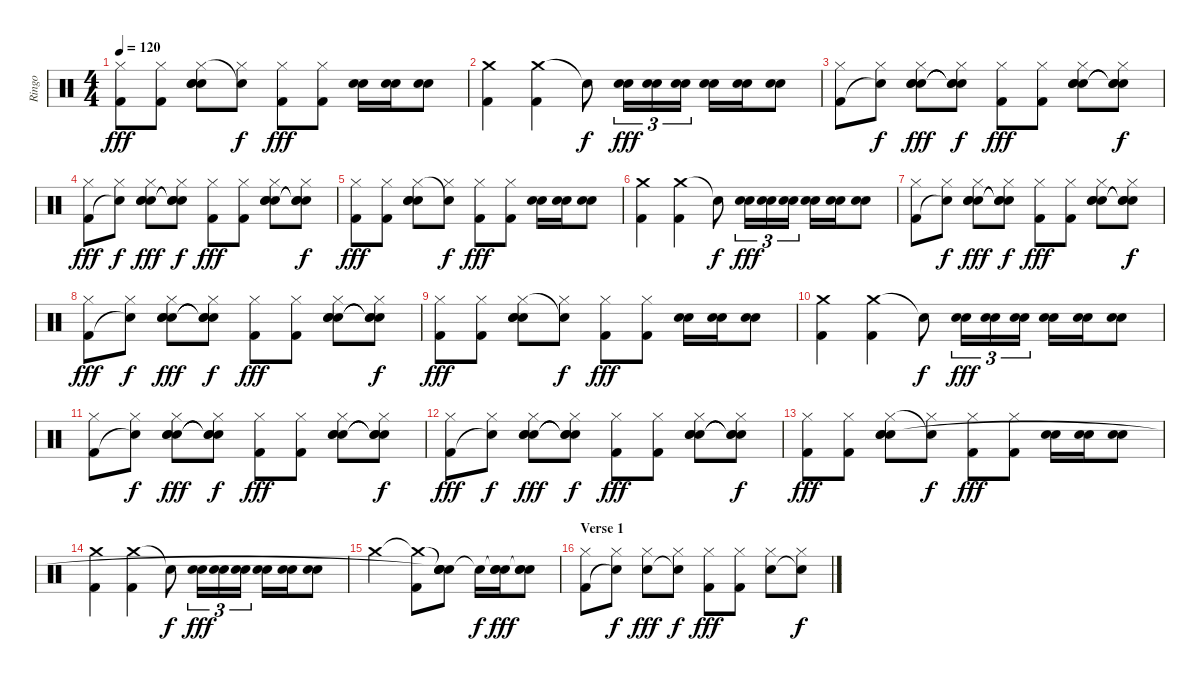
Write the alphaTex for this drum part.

\track ("Ringo" "Ringo") {instrument percussion}
\staff {score}
\articulation defaults
\ts (4 4)
\tempo 120
\clef neutral
\ks c
("Hi-Hat (closed)" "Kick (hit) 2").8{dy fff} ("Hi-Hat (closed)" "Kick (hit) 2").8 ("Hand Clap (hit)" "Hi-Hat (closed)" "Electric Snare (hit)" "Hand Clap (hit)").8 ("Hi-Hat (closed)" "Snare (hit)"{t}).8{dy f} ("Hi-Hat (closed)" "Kick (hit) 2").8{dy fff} ("Hi-Hat (closed)" "Kick (hit) 2").8 ("Electric Snare (hit)" "Electric Snare (hit)").16 ("Electric Snare (hit)" "Electric Snare (hit)").16 ("Electric Snare (hit)" "Electric Snare (hit)").8 |
("Crash medium (hit)" "Kick (hit) 2").4 ("Crash medium (hit)" "Kick (hit) 2").4 "Snare (hit)"{t}.8{dy f} ("Electric Snare (hit)" "Electric Snare (hit)").16{tu (3 2) dy fff} ("Electric Snare (hit)" "Electric Snare (hit)").16{tu (3 2)} ("Electric Snare (hit)" "Electric Snare (hit)").16{tu (3 2)} ("Electric Snare (hit)" "Electric Snare (hit)").16 ("Electric Snare (hit)" "Electric Snare (hit)").16 ("Electric Snare (hit)" "Electric Snare (hit)").8 |
("Hi-Hat (closed)" "Kick (hit) 2").8 ("Hi-Hat (closed)" "Snare (hit)"{t}).8{dy f} ("Hand Clap (hit)" "Hi-Hat (closed)" "Electric Snare (hit)" "Hand Clap (hit)").8{dy fff} ("Snare (hit)"{t} "Hi-Hat (closed)" "Snare (hit)"{t} "Snare (hit)"{t}).8{dy f} ("Hi-Hat (closed)" "Kick (hit) 2").8{dy fff} ("Hi-Hat (closed)" "Kick (hit) 2").8 ("Hand Clap (hit)" "Hi-Hat (closed)" "Electric Snare (hit)" "Hand Clap (hit)").8 ("Snare (hit)"{t} "Hi-Hat (closed)" "Snare (hit)"{t} "Snare (hit)"{t}).8{dy f} |
("Hi-Hat (closed)" "Kick (hit) 2").8{dy fff} ("Hi-Hat (closed)" "Snare (hit)"{t}).8{dy f} ("Hand Clap (hit)" "Hi-Hat (closed)" "Electric Snare (hit)" "Hand Clap (hit)").8{dy fff} ("Snare (hit)"{t} "Hi-Hat (closed)" "Snare (hit)"{t} "Snare (hit)"{t}).8{dy f} ("Hi-Hat (closed)" "Kick (hit) 2").8{dy fff} ("Hi-Hat (closed)" "Kick (hit) 2").8 ("Hand Clap (hit)" "Hi-Hat (closed)" "Electric Snare (hit)" "Hand Clap (hit)").8 ("Snare (hit)"{t} "Hi-Hat (closed)" "Snare (hit)"{t} "Snare (hit)"{t}).8{dy f} |
("Hi-Hat (closed)" "Kick (hit) 2").8{dy fff} ("Hi-Hat (closed)" "Kick (hit) 2").8 ("Hand Clap (hit)" "Hi-Hat (closed)" "Electric Snare (hit)" "Hand Clap (hit)").8 ("Hi-Hat (closed)" "Snare (hit)"{t}).8{dy f} ("Hi-Hat (closed)" "Kick (hit) 2").8{dy fff} ("Hi-Hat (closed)" "Kick (hit) 2").8 ("Electric Snare (hit)" "Electric Snare (hit)").16 ("Electric Snare (hit)" "Electric Snare (hit)").16 ("Electric Snare (hit)" "Electric Snare (hit)").8 |
("Crash medium (hit)" "Kick (hit) 2").4 ("Crash medium (hit)" "Kick (hit) 2").4 "Snare (hit)"{t}.8{dy f} ("Electric Snare (hit)" "Electric Snare (hit)").16{tu (3 2) dy fff} ("Electric Snare (hit)" "Electric Snare (hit)").16{tu (3 2)} ("Electric Snare (hit)" "Electric Snare (hit)").16{tu (3 2)} ("Electric Snare (hit)" "Electric Snare (hit)").16 ("Electric Snare (hit)" "Electric Snare (hit)").16 ("Electric Snare (hit)" "Electric Snare (hit)").8 |
("Hi-Hat (closed)" "Kick (hit) 2").8 ("Hi-Hat (closed)" "Snare (hit)"{t}).8{dy f} ("Hand Clap (hit)" "Hi-Hat (closed)" "Electric Snare (hit)" "Hand Clap (hit)").8{dy fff} ("Snare (hit)"{t} "Hi-Hat (closed)" "Snare (hit)"{t} "Snare (hit)"{t}).8{dy f} ("Hi-Hat (closed)" "Kick (hit) 2").8{dy fff} ("Hi-Hat (closed)" "Kick (hit) 2").8 ("Hand Clap (hit)" "Hi-Hat (closed)" "Electric Snare (hit)" "Hand Clap (hit)").8 ("Snare (hit)"{t} "Hi-Hat (closed)" "Snare (hit)"{t} "Snare (hit)"{t}).8{dy f} |
("Hi-Hat (closed)" "Kick (hit) 2").8{dy fff} ("Hi-Hat (closed)" "Snare (hit)"{t}).8{dy f} ("Hand Clap (hit)" "Hi-Hat (closed)" "Electric Snare (hit)" "Hand Clap (hit)").8{dy fff} ("Snare (hit)"{t} "Hi-Hat (closed)" "Snare (hit)"{t} "Snare (hit)"{t}).8{dy f} ("Hi-Hat (closed)" "Kick (hit) 2").8{dy fff} ("Hi-Hat (closed)" "Kick (hit) 2").8 ("Hand Clap (hit)" "Hi-Hat (closed)" "Electric Snare (hit)" "Hand Clap (hit)").8 ("Snare (hit)"{t} "Hi-Hat (closed)" "Snare (hit)"{t} "Snare (hit)"{t}).8{dy f} |
("Hi-Hat (closed)" "Kick (hit) 2").8{dy fff} ("Hi-Hat (closed)" "Kick (hit) 2").8 ("Hand Clap (hit)" "Hi-Hat (closed)" "Electric Snare (hit)" "Hand Clap (hit)").8 ("Hi-Hat (closed)" "Snare (hit)"{t}).8{dy f} ("Hi-Hat (closed)" "Kick (hit) 2").8{dy fff} ("Hi-Hat (closed)" "Kick (hit) 2").8 ("Electric Snare (hit)" "Electric Snare (hit)").16 ("Electric Snare (hit)" "Electric Snare (hit)").16 ("Electric Snare (hit)" "Electric Snare (hit)").8 |
("Crash medium (hit)" "Kick (hit) 2").4 ("Crash medium (hit)" "Kick (hit) 2").4 "Snare (hit)"{t}.8{dy f} ("Electric Snare (hit)" "Electric Snare (hit)").16{tu (3 2) dy fff} ("Electric Snare (hit)" "Electric Snare (hit)").16{tu (3 2)} ("Electric Snare (hit)" "Electric Snare (hit)").16{tu (3 2)} ("Electric Snare (hit)" "Electric Snare (hit)").16 ("Electric Snare (hit)" "Electric Snare (hit)").16 ("Electric Snare (hit)" "Electric Snare (hit)").8 |
("Hi-Hat (closed)" "Kick (hit) 2").8 ("Hi-Hat (closed)" "Snare (hit)"{t}).8{dy f} ("Hand Clap (hit)" "Hi-Hat (closed)" "Electric Snare (hit)" "Hand Clap (hit)").8{dy fff} ("Snare (hit)"{t} "Hi-Hat (closed)" "Snare (hit)"{t} "Snare (hit)"{t}).8{dy f} ("Hi-Hat (closed)" "Kick (hit) 2").8{dy fff} ("Hi-Hat (closed)" "Kick (hit) 2").8 ("Hand Clap (hit)" "Hi-Hat (closed)" "Electric Snare (hit)" "Hand Clap (hit)").8 ("Snare (hit)"{t} "Hi-Hat (closed)" "Snare (hit)"{t} "Snare (hit)"{t}).8{dy f} |
("Hi-Hat (closed)" "Kick (hit) 2").8{dy fff} ("Hi-Hat (closed)" "Snare (hit)"{t}).8{dy f} ("Hand Clap (hit)" "Hi-Hat (closed)" "Electric Snare (hit)" "Hand Clap (hit)").8{dy fff} ("Snare (hit)"{t} "Hi-Hat (closed)" "Snare (hit)"{t} "Snare (hit)"{t}).8{dy f} ("Hi-Hat (closed)" "Kick (hit) 2").8{dy fff} ("Hi-Hat (closed)" "Kick (hit) 2").8 ("Hand Clap (hit)" "Hi-Hat (closed)" "Electric Snare (hit)" "Hand Clap (hit)").8 ("Snare (hit)"{t} "Hi-Hat (closed)" "Snare (hit)"{t} "Snare (hit)"{t}).8{dy f} |
("Hi-Hat (closed)" "Kick (hit) 2").8{dy fff} ("Hi-Hat (closed)" "Kick (hit) 2").8 ("Hand Clap (hit)" "Hi-Hat (closed)" "Electric Snare (hit)" "Hand Clap (hit)").8 ("Hi-Hat (closed)" "Snare (hit)"{t}).8{dy f} ("Hi-Hat (closed)" "Kick (hit) 2").8{dy fff} ("Hi-Hat (closed)" "Kick (hit) 2").8 ("Electric Snare (hit)" "Electric Snare (hit)").16 ("Electric Snare (hit)" "Electric Snare (hit)").16 ("Electric Snare (hit)" "Electric Snare (hit)").8 |
("Crash medium (hit)" "Kick (hit) 2").4 ("Crash medium (hit)" "Kick (hit) 2").4 "Snare (hit)"{t}.8{dy f} ("Electric Snare (hit)" "Electric Snare (hit)").16{tu (3 2) dy fff} ("Electric Snare (hit)" "Electric Snare (hit)").16{tu (3 2)} ("Electric Snare (hit)" "Electric Snare (hit)").16{tu (3 2)} ("Electric Snare (hit)" "Electric Snare (hit)").16 ("Electric Snare (hit)" "Electric Snare (hit)").16 ("Electric Snare (hit)" "Electric Snare (hit)").8 |
"Crash medium (hit)".2 ("Crash medium (hit)"{t} "Kick (hit) 2").8 ("Snare (hit)"{t} "Electric Snare (hit)" "Electric Snare (hit)" "Snare (hit)"{t}).8 "Snare (hit)"{t}.16{dy f} ("Snare (hit)"{t} "Electric Snare (hit)" "Electric Snare (hit)").16{dy fff} ("Snare (hit)"{t} "Electric Snare (hit)" "Electric Snare (hit)").8 |
\section ("" "Verse 1")
("Hi-Hat (closed)" "Kick (hit) 2").8 ("Hi-Hat (closed)" "Snare (hit)"{t}).8{dy f} ("Hi-Hat (closed)" "Electric Snare (hit)").8{dy fff} ("Hi-Hat (closed)" "Snare (hit)"{t}).8{dy f} ("Hi-Hat (closed)" "Kick (hit) 2").8{dy fff} ("Hi-Hat (closed)" "Kick (hit) 2").8 ("Hi-Hat (closed)" "Electric Snare (hit)").8 ("Hi-Hat (closed)" "Snare (hit)"{t}).8{dy f}
